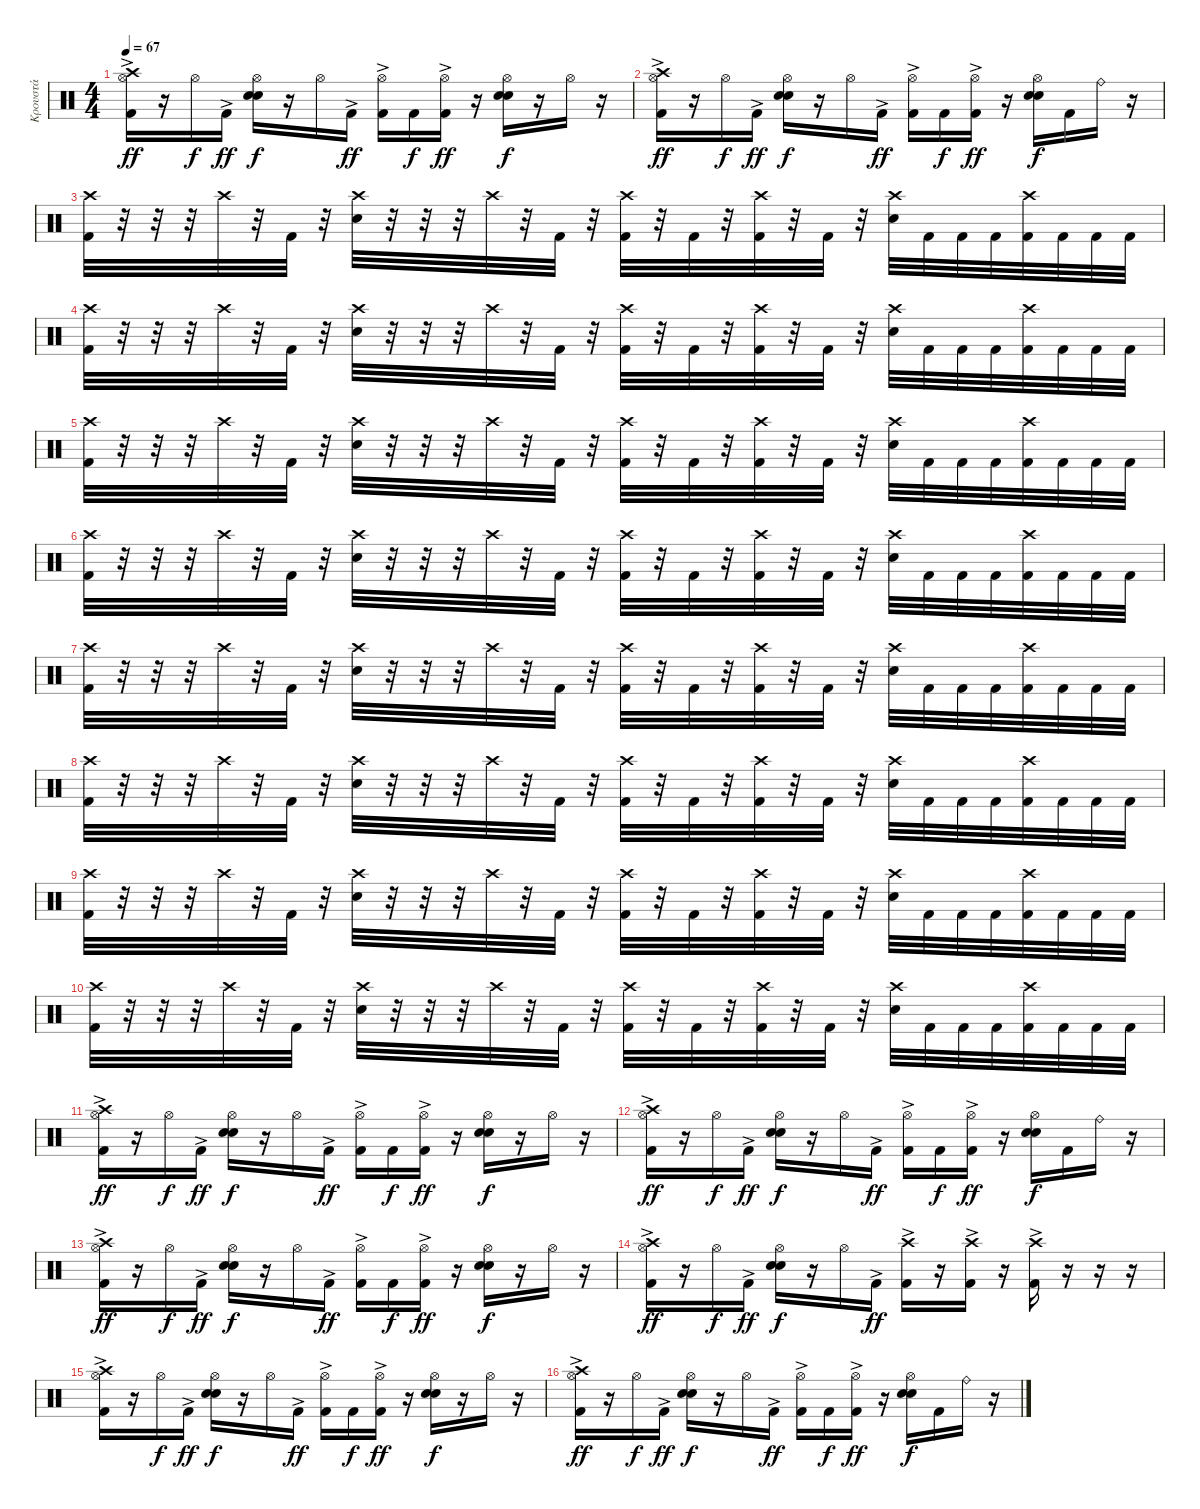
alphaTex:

\track ("Κρουστά" "Κρουστά") {instrument percussion}
\staff {score}
\articulation defaults
\ts (4 4)
\tempo 67
\clef neutral
\ks c
("Hi-Hat (open)" "Crash high (hit)" "Kick (hit) 2"{ac}).16{dy ff} r.16 "Hi-Hat (open)".16{dy f} "Kick (hit) 2"{ac}.16{dy ff} ("Hi-Hat (open)" "Hand Clap (hit)" "Electric Snare (hit)").16{dy f} r.16 "Hi-Hat (open)".16 "Kick (hit) 2"{ac}.16{dy ff} ("Hi-Hat (open)" "Kick (hit) 2"{ac}).16 "Kick (hit) 2".16{dy f} ("Hi-Hat (open)" "Kick (hit) 2"{ac}).16{dy ff} r.16 ("Hi-Hat (open)" "Electric Snare (hit)" "Hand Clap (hit)").16{dy f} r.16 "Hi-Hat (open)".16 r.16 |
("Hi-Hat (open)" "Crash high (hit)" "Kick (hit) 2"{ac}).16{dy ff} r.16 "Hi-Hat (open)".16{dy f} "Kick (hit) 2"{ac}.16{dy ff} ("Hi-Hat (open)" "Hand Clap (hit)" "Electric Snare (hit)").16{dy f} r.16 "Hi-Hat (open)".16 "Kick (hit) 2"{ac}.16{dy ff} ("Hi-Hat (open)" "Kick (hit) 2"{ac}).16 "Kick (hit) 2".16{dy f} ("Hi-Hat (open)" "Kick (hit) 2"{ac}).16{dy ff} r.16 ("Hi-Hat (open)" "Electric Snare (hit)" "Hand Clap (hit)").16{dy f} "Kick (hit) 2".16 "Ride (bell)".16 r.16 |
("Crash high (hit)" "Kick (hit) 2").32 r.32 r.32 r.32 "Crash high (hit)".32 r.32 "Kick (hit) 2".32 r.32 ("Crash high (hit)" "Electric Snare (hit)").32 r.32 r.32 r.32 "Crash high (hit)".32 r.32 "Kick (hit) 2".32 r.32 ("Crash high (hit)" "Kick (hit) 2").32 r.32 "Kick (hit) 2".32 r.32 ("Crash high (hit)" "Kick (hit) 2").32 r.32 "Kick (hit) 2".32 r.32 ("Crash high (hit)" "Electric Snare (hit)").32 "Kick (hit) 2".32 "Kick (hit) 2".32 "Kick (hit) 2".32 ("Crash high (hit)" "Kick (hit) 2").32 "Kick (hit) 2".32 "Kick (hit) 2".32 "Kick (hit) 2".32 |
("Crash high (hit)" "Kick (hit) 2").32 r.32 r.32 r.32 "Crash high (hit)".32 r.32 "Kick (hit) 2".32 r.32 ("Crash high (hit)" "Electric Snare (hit)").32 r.32 r.32 r.32 "Crash high (hit)".32 r.32 "Kick (hit) 2".32 r.32 ("Crash high (hit)" "Kick (hit) 2").32 r.32 "Kick (hit) 2".32 r.32 ("Crash high (hit)" "Kick (hit) 2").32 r.32 "Kick (hit) 2".32 r.32 ("Crash high (hit)" "Electric Snare (hit)").32 "Kick (hit) 2".32 "Kick (hit) 2".32 "Kick (hit) 2".32 ("Crash high (hit)" "Kick (hit) 2").32 "Kick (hit) 2".32 "Kick (hit) 2".32 "Kick (hit) 2".32 |
("Crash high (hit)" "Kick (hit) 2").32 r.32 r.32 r.32 "Crash high (hit)".32 r.32 "Kick (hit) 2".32 r.32 ("Crash high (hit)" "Electric Snare (hit)").32 r.32 r.32 r.32 "Crash high (hit)".32 r.32 "Kick (hit) 2".32 r.32 ("Crash high (hit)" "Kick (hit) 2").32 r.32 "Kick (hit) 2".32 r.32 ("Crash high (hit)" "Kick (hit) 2").32 r.32 "Kick (hit) 2".32 r.32 ("Crash high (hit)" "Electric Snare (hit)").32 "Kick (hit) 2".32 "Kick (hit) 2".32 "Kick (hit) 2".32 ("Crash high (hit)" "Kick (hit) 2").32 "Kick (hit) 2".32 "Kick (hit) 2".32 "Kick (hit) 2".32 |
("Crash high (hit)" "Kick (hit) 2").32 r.32 r.32 r.32 "Crash high (hit)".32 r.32 "Kick (hit) 2".32 r.32 ("Crash high (hit)" "Electric Snare (hit)").32 r.32 r.32 r.32 "Crash high (hit)".32 r.32 "Kick (hit) 2".32 r.32 ("Crash high (hit)" "Kick (hit) 2").32 r.32 "Kick (hit) 2".32 r.32 ("Crash high (hit)" "Kick (hit) 2").32 r.32 "Kick (hit) 2".32 r.32 ("Crash high (hit)" "Electric Snare (hit)").32 "Kick (hit) 2".32 "Kick (hit) 2".32 "Kick (hit) 2".32 ("Crash high (hit)" "Kick (hit) 2").32 "Kick (hit) 2".32 "Kick (hit) 2".32 "Kick (hit) 2".32 |
("Crash high (hit)" "Kick (hit) 2").32 r.32 r.32 r.32 "Crash high (hit)".32 r.32 "Kick (hit) 2".32 r.32 ("Crash high (hit)" "Electric Snare (hit)").32 r.32 r.32 r.32 "Crash high (hit)".32 r.32 "Kick (hit) 2".32 r.32 ("Crash high (hit)" "Kick (hit) 2").32 r.32 "Kick (hit) 2".32 r.32 ("Crash high (hit)" "Kick (hit) 2").32 r.32 "Kick (hit) 2".32 r.32 ("Crash high (hit)" "Electric Snare (hit)").32 "Kick (hit) 2".32 "Kick (hit) 2".32 "Kick (hit) 2".32 ("Crash high (hit)" "Kick (hit) 2").32 "Kick (hit) 2".32 "Kick (hit) 2".32 "Kick (hit) 2".32 |
("Crash high (hit)" "Kick (hit) 2").32 r.32 r.32 r.32 "Crash high (hit)".32 r.32 "Kick (hit) 2".32 r.32 ("Crash high (hit)" "Electric Snare (hit)").32 r.32 r.32 r.32 "Crash high (hit)".32 r.32 "Kick (hit) 2".32 r.32 ("Crash high (hit)" "Kick (hit) 2").32 r.32 "Kick (hit) 2".32 r.32 ("Crash high (hit)" "Kick (hit) 2").32 r.32 "Kick (hit) 2".32 r.32 ("Crash high (hit)" "Electric Snare (hit)").32 "Kick (hit) 2".32 "Kick (hit) 2".32 "Kick (hit) 2".32 ("Crash high (hit)" "Kick (hit) 2").32 "Kick (hit) 2".32 "Kick (hit) 2".32 "Kick (hit) 2".32 |
("Crash high (hit)" "Kick (hit) 2").32 r.32 r.32 r.32 "Crash high (hit)".32 r.32 "Kick (hit) 2".32 r.32 ("Crash high (hit)" "Electric Snare (hit)").32 r.32 r.32 r.32 "Crash high (hit)".32 r.32 "Kick (hit) 2".32 r.32 ("Crash high (hit)" "Kick (hit) 2").32 r.32 "Kick (hit) 2".32 r.32 ("Crash high (hit)" "Kick (hit) 2").32 r.32 "Kick (hit) 2".32 r.32 ("Crash high (hit)" "Electric Snare (hit)").32 "Kick (hit) 2".32 "Kick (hit) 2".32 "Kick (hit) 2".32 ("Crash high (hit)" "Kick (hit) 2").32 "Kick (hit) 2".32 "Kick (hit) 2".32 "Kick (hit) 2".32 |
("Crash high (hit)" "Kick (hit) 2").32 r.32 r.32 r.32 "Crash high (hit)".32 r.32 "Kick (hit) 2".32 r.32 ("Crash high (hit)" "Electric Snare (hit)").32 r.32 r.32 r.32 "Crash high (hit)".32 r.32 "Kick (hit) 2".32 r.32 ("Crash high (hit)" "Kick (hit) 2").32 r.32 "Kick (hit) 2".32 r.32 ("Crash high (hit)" "Kick (hit) 2").32 r.32 "Kick (hit) 2".32 r.32 ("Crash high (hit)" "Electric Snare (hit)").32 "Kick (hit) 2".32 "Kick (hit) 2".32 "Kick (hit) 2".32 ("Crash high (hit)" "Kick (hit) 2").32 "Kick (hit) 2".32 "Kick (hit) 2".32 "Kick (hit) 2".32 |
("Hi-Hat (open)" "Crash high (hit)" "Kick (hit) 2"{ac}).16{dy ff} r.16 "Hi-Hat (open)".16{dy f} "Kick (hit) 2"{ac}.16{dy ff} ("Hi-Hat (open)" "Hand Clap (hit)" "Electric Snare (hit)").16{dy f} r.16 "Hi-Hat (open)".16 "Kick (hit) 2"{ac}.16{dy ff} ("Hi-Hat (open)" "Kick (hit) 2"{ac}).16 "Kick (hit) 2".16{dy f} ("Hi-Hat (open)" "Kick (hit) 2"{ac}).16{dy ff} r.16 ("Hi-Hat (open)" "Electric Snare (hit)" "Hand Clap (hit)").16{dy f} r.16 "Hi-Hat (open)".16 r.16 |
("Hi-Hat (open)" "Crash high (hit)" "Kick (hit) 2"{ac}).16{dy ff} r.16 "Hi-Hat (open)".16{dy f} "Kick (hit) 2"{ac}.16{dy ff} ("Hi-Hat (open)" "Hand Clap (hit)" "Electric Snare (hit)").16{dy f} r.16 "Hi-Hat (open)".16 "Kick (hit) 2"{ac}.16{dy ff} ("Hi-Hat (open)" "Kick (hit) 2"{ac}).16 "Kick (hit) 2".16{dy f} ("Hi-Hat (open)" "Kick (hit) 2"{ac}).16{dy ff} r.16 ("Hi-Hat (open)" "Electric Snare (hit)" "Hand Clap (hit)").16{dy f} "Kick (hit) 2".16 "Ride (bell)".16 r.16 |
("Hi-Hat (open)" "Crash high (hit)" "Kick (hit) 2"{ac}).16{dy ff} r.16 "Hi-Hat (open)".16{dy f} "Kick (hit) 2"{ac}.16{dy ff} ("Hi-Hat (open)" "Hand Clap (hit)" "Electric Snare (hit)").16{dy f} r.16 "Hi-Hat (open)".16 "Kick (hit) 2"{ac}.16{dy ff} ("Hi-Hat (open)" "Kick (hit) 2"{ac}).16 "Kick (hit) 2".16{dy f} ("Hi-Hat (open)" "Kick (hit) 2"{ac}).16{dy ff} r.16 ("Hi-Hat (open)" "Electric Snare (hit)" "Hand Clap (hit)").16{dy f} r.16 "Hi-Hat (open)".16 r.16 |
("Hi-Hat (open)" "Crash high (hit)" "Kick (hit) 2"{ac}).16{dy ff} r.16 "Hi-Hat (open)".16{dy f} "Kick (hit) 2"{ac}.16{dy ff} ("Hi-Hat (open)" "Hand Clap (hit)" "Electric Snare (hit)").16{dy f} r.16 "Hi-Hat (open)".16 "Kick (hit) 2"{ac}.16{dy ff} ("Crash high (hit)"{ac} "Kick (hit) 2"{ac}).16 r.16 ("Crash high (hit)"{ac} "Kick (hit) 2"{ac}).16 r.16 ("Crash high (hit)"{ac} "Kick (hit) 2").16 r.16 r.16 r.16 |
("Hi-Hat (open)" "Crash high (hit)" "Kick (hit) 2"{ac}).16 r.16 "Hi-Hat (open)".16{dy f} "Kick (hit) 2"{ac}.16{dy ff} ("Hi-Hat (open)" "Hand Clap (hit)" "Electric Snare (hit)").16{dy f} r.16 "Hi-Hat (open)".16 "Kick (hit) 2"{ac}.16{dy ff} ("Hi-Hat (open)" "Kick (hit) 2"{ac}).16 "Kick (hit) 2".16{dy f} ("Hi-Hat (open)" "Kick (hit) 2"{ac}).16{dy ff} r.16 ("Hi-Hat (open)" "Electric Snare (hit)" "Hand Clap (hit)").16{dy f} r.16 "Hi-Hat (open)".16 r.16 |
("Hi-Hat (open)" "Crash high (hit)" "Kick (hit) 2"{ac}).16{dy ff} r.16 "Hi-Hat (open)".16{dy f} "Kick (hit) 2"{ac}.16{dy ff} ("Hi-Hat (open)" "Hand Clap (hit)" "Electric Snare (hit)").16{dy f} r.16 "Hi-Hat (open)".16 "Kick (hit) 2"{ac}.16{dy ff} ("Hi-Hat (open)" "Kick (hit) 2"{ac}).16 "Kick (hit) 2".16{dy f} ("Hi-Hat (open)" "Kick (hit) 2"{ac}).16{dy ff} r.16 ("Hi-Hat (open)" "Electric Snare (hit)" "Hand Clap (hit)").16{dy f} "Kick (hit) 2".16 "Ride (bell)".16 r.16
